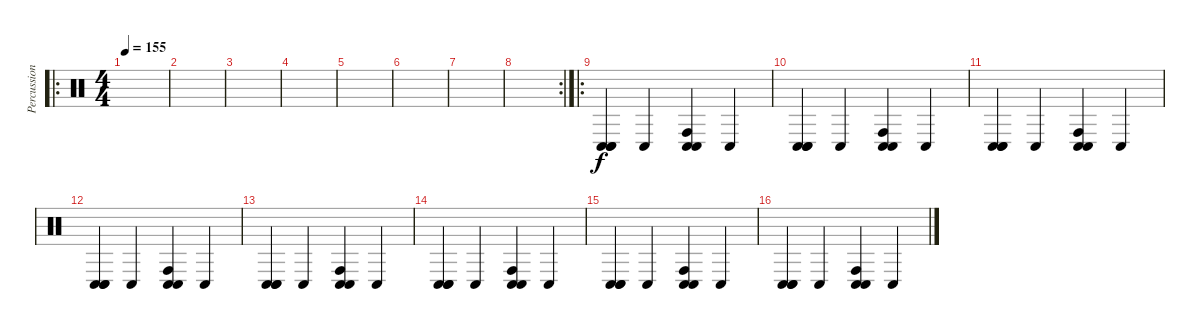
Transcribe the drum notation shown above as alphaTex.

\track ("Percussion" "Percussion") {instrument percussion}
\staff {score}
\articulation defaults
\ro
\ts (4 4)
\tempo 155
\clef neutral
\ks c
|
|
|
|
|
|
|
\rc 2
|
\ro
("Conga low (hit)" "Conga low (hit)" "Conga low (hit)").4 "Conga low (hit)".4 ("Conga high (hit)" "Conga low (hit)" "Conga low (hit)").4 "Conga low (hit)".4 |
("Conga low (hit)" "Conga low (hit)" "Conga low (hit)").4 "Conga low (hit)".4 ("Conga high (hit)" "Conga low (hit)" "Conga low (hit)").4 "Conga low (hit)".4 |
("Conga low (hit)" "Conga low (hit)" "Conga low (hit)").4 "Conga low (hit)".4 ("Conga high (hit)" "Conga low (hit)" "Conga low (hit)").4 "Conga low (hit)".4 |
("Conga low (hit)" "Conga low (hit)" "Conga low (hit)").4 "Conga low (hit)".4 ("Conga high (hit)" "Conga low (hit)" "Conga low (hit)").4 "Conga low (hit)".4 |
("Conga low (hit)" "Conga low (hit)" "Conga low (hit)").4 "Conga low (hit)".4 ("Conga high (hit)" "Conga low (hit)" "Conga low (hit)").4 "Conga low (hit)".4 |
("Conga low (hit)" "Conga low (hit)" "Conga low (hit)").4 "Conga low (hit)".4 ("Conga high (hit)" "Conga low (hit)" "Conga low (hit)").4 "Conga low (hit)".4 |
("Conga low (hit)" "Conga low (hit)" "Conga low (hit)").4 "Conga low (hit)".4 ("Conga high (hit)" "Conga low (hit)" "Conga low (hit)").4 "Conga low (hit)".4 |
("Conga low (hit)" "Conga low (hit)" "Conga low (hit)").4 "Conga low (hit)".4 ("Conga high (hit)" "Conga low (hit)" "Conga low (hit)").4 "Conga low (hit)".4
